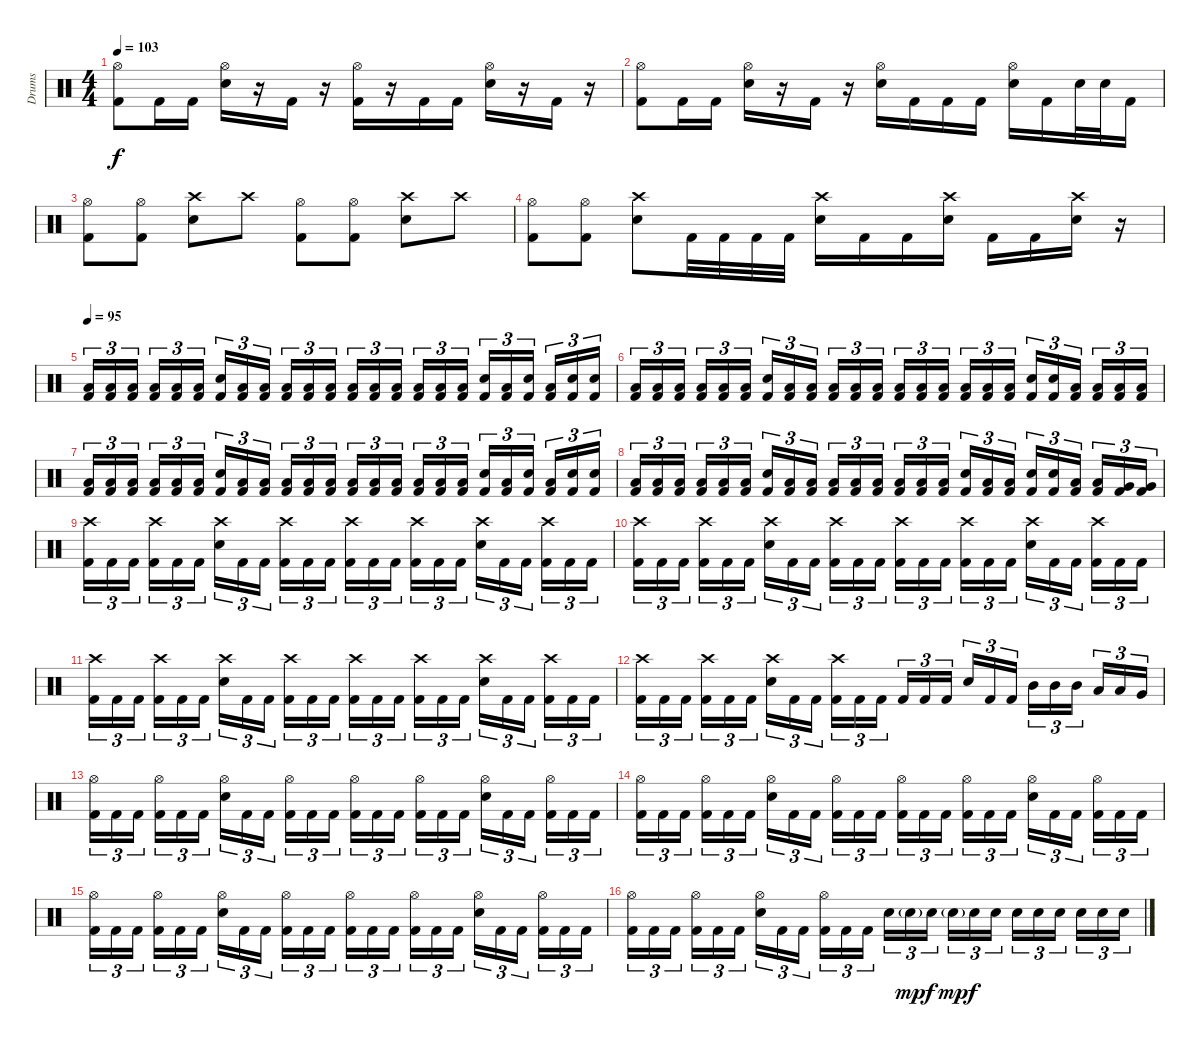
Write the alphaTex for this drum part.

\track ("Drums" "Drums") {instrument percussion}
\staff {score}
\articulation defaults
\ts (4 4)
\tempo 103
\clef neutral
\ks c
("Hi-Hat (open)" "Kick (hit) 2").8{dy f} "Kick (hit) 2".16 "Kick (hit) 2".16 ("Hi-Hat (open)" "Electric Snare (hit)").16 r.16 "Kick (hit) 2".16 r.16 ("Hi-Hat (open)" "Kick (hit) 2").16 r.16 "Kick (hit) 2".16 "Kick (hit) 2".16 ("Hi-Hat (open)" "Electric Snare (hit)").16 r.16 "Kick (hit) 2".16 r.16 |
("Hi-Hat (open)" "Kick (hit) 2").8 "Kick (hit) 2".16 "Kick (hit) 2".16 ("Hi-Hat (open)" "Electric Snare (hit)").16 r.16 "Kick (hit) 2".16 r.16 ("Hi-Hat (open)" "Electric Snare (hit)").16 "Kick (hit) 2".16 "Kick (hit) 2".16 "Kick (hit) 2".16 ("Hi-Hat (open)" "Electric Snare (hit)").16 "Kick (hit) 2".16 "Electric Snare (hit)".32 "Electric Snare (hit)".32 "Kick (hit) 2".16 |
("Hi-Hat (open)" "Kick (hit) 2").8 ("Hi-Hat (open)" "Kick (hit) 2").8 ("Crash high (hit)" "Electric Snare (hit)").8 "Crash high (hit)".8 ("Hi-Hat (open)" "Kick (hit) 2").8 ("Hi-Hat (open)" "Kick (hit) 2").8 ("Crash high (hit)" "Electric Snare (hit)").8 "Crash high (hit)".8 |
("Hi-Hat (open)" "Kick (hit) 2").8 ("Hi-Hat (open)" "Kick (hit) 2").8 ("Crash high (hit)" "Electric Snare (hit)").8 "Kick (hit) 2".32 "Kick (hit) 2".32 "Kick (hit) 2".32 "Kick (hit) 2".32 ("Crash high (hit)" "Electric Snare (hit)").16 "Kick (hit) 2".16 "Kick (hit) 2".16 ("Crash high (hit)" "Electric Snare (hit)").16 "Kick (hit) 2".16 "Kick (hit) 2".16 ("Crash high (hit)" "Electric Snare (hit)").16 r.16 |
\tempo 95
("Low Tom (hit)" "Kick (hit) 2").16{tu (3 2)} ("Low Tom (hit)" "Kick (hit) 2").16{tu (3 2)} ("Low Tom (hit)" "Kick (hit) 2").16{tu (3 2) beam splitsecondary} ("Low Tom (hit)" "Kick (hit) 2").16{tu (3 2)} ("Low Tom (hit)" "Kick (hit) 2").16{tu (3 2)} ("Low Tom (hit)" "Kick (hit) 2").16{tu (3 2)} ("Electric Snare (hit)" "Kick (hit) 2").16{tu (3 2)} ("Low Tom (hit)" "Kick (hit) 2").16{tu (3 2)} ("Low Tom (hit)" "Kick (hit) 2").16{tu (3 2) beam splitsecondary} ("Low Tom (hit)" "Kick (hit) 2").16{tu (3 2)} ("Low Tom (hit)" "Kick (hit) 2").16{tu (3 2)} ("Low Tom (hit)" "Kick (hit) 2").16{tu (3 2)} ("Low Tom (hit)" "Kick (hit) 2").16{tu (3 2)} ("Low Tom (hit)" "Kick (hit) 2").16{tu (3 2)} ("Low Tom (hit)" "Kick (hit) 2").16{tu (3 2) beam splitsecondary} ("Low Tom (hit)" "Kick (hit) 2").16{tu (3 2)} ("Low Tom (hit)" "Kick (hit) 2").16{tu (3 2)} ("Low Tom (hit)" "Kick (hit) 2").16{tu (3 2)} ("Electric Snare (hit)" "Kick (hit) 2").16{tu (3 2)} ("Low Tom (hit)" "Kick (hit) 2").16{tu (3 2)} ("Electric Snare (hit)" "Kick (hit) 2").16{tu (3 2) beam splitsecondary} ("Low Tom (hit)" "Kick (hit) 2").16{tu (3 2)} ("Electric Snare (hit)" "Kick (hit) 2").16{tu (3 2)} ("Electric Snare (hit)" "Kick (hit) 2").16{tu (3 2)} |
("Low Tom (hit)" "Kick (hit) 2").16{tu (3 2)} ("Low Tom (hit)" "Kick (hit) 2").16{tu (3 2)} ("Low Tom (hit)" "Kick (hit) 2").16{tu (3 2) beam splitsecondary} ("Low Tom (hit)" "Kick (hit) 2").16{tu (3 2)} ("Low Tom (hit)" "Kick (hit) 2").16{tu (3 2)} ("Low Tom (hit)" "Kick (hit) 2").16{tu (3 2)} ("Electric Snare (hit)" "Kick (hit) 2").16{tu (3 2)} ("Low Tom (hit)" "Kick (hit) 2").16{tu (3 2)} ("Low Tom (hit)" "Kick (hit) 2").16{tu (3 2) beam splitsecondary} ("Low Tom (hit)" "Kick (hit) 2").16{tu (3 2)} ("Low Tom (hit)" "Kick (hit) 2").16{tu (3 2)} ("Low Tom (hit)" "Kick (hit) 2").16{tu (3 2)} ("Low Tom (hit)" "Kick (hit) 2").16{tu (3 2)} ("Low Tom (hit)" "Kick (hit) 2").16{tu (3 2)} ("Low Tom (hit)" "Kick (hit) 2").16{tu (3 2) beam splitsecondary} ("Low Tom (hit)" "Kick (hit) 2").16{tu (3 2)} ("Low Tom (hit)" "Kick (hit) 2").16{tu (3 2)} ("Low Tom (hit)" "Kick (hit) 2").16{tu (3 2)} ("Electric Snare (hit)" "Kick (hit) 2").16{tu (3 2)} ("Electric Snare (hit)" "Kick (hit) 2").16{tu (3 2)} ("Low Tom (hit)" "Kick (hit) 2").16{tu (3 2) beam splitsecondary} ("Low Tom (hit)" "Kick (hit) 2").16{tu (3 2)} ("Low Tom (hit)" "Kick (hit) 2").16{tu (3 2)} ("Low Tom (hit)" "Kick (hit) 2").16{tu (3 2)} |
("Low Tom (hit)" "Kick (hit) 2").16{tu (3 2)} ("Low Tom (hit)" "Kick (hit) 2").16{tu (3 2)} ("Low Tom (hit)" "Kick (hit) 2").16{tu (3 2) beam splitsecondary} ("Low Tom (hit)" "Kick (hit) 2").16{tu (3 2)} ("Low Tom (hit)" "Kick (hit) 2").16{tu (3 2)} ("Low Tom (hit)" "Kick (hit) 2").16{tu (3 2)} ("Electric Snare (hit)" "Kick (hit) 2").16{tu (3 2)} ("Low Tom (hit)" "Kick (hit) 2").16{tu (3 2)} ("Low Tom (hit)" "Kick (hit) 2").16{tu (3 2) beam splitsecondary} ("Low Tom (hit)" "Kick (hit) 2").16{tu (3 2)} ("Low Tom (hit)" "Kick (hit) 2").16{tu (3 2)} ("Low Tom (hit)" "Kick (hit) 2").16{tu (3 2)} ("Low Tom (hit)" "Kick (hit) 2").16{tu (3 2)} ("Low Tom (hit)" "Kick (hit) 2").16{tu (3 2)} ("Low Tom (hit)" "Kick (hit) 2").16{tu (3 2) beam splitsecondary} ("Low Tom (hit)" "Kick (hit) 2").16{tu (3 2)} ("Low Tom (hit)" "Kick (hit) 2").16{tu (3 2)} ("Low Tom (hit)" "Kick (hit) 2").16{tu (3 2)} ("Electric Snare (hit)" "Kick (hit) 2").16{tu (3 2)} ("Low Tom (hit)" "Kick (hit) 2").16{tu (3 2)} ("Electric Snare (hit)" "Kick (hit) 2").16{tu (3 2) beam splitsecondary} ("Low Tom (hit)" "Kick (hit) 2").16{tu (3 2)} ("Electric Snare (hit)" "Kick (hit) 2").16{tu (3 2)} ("Electric Snare (hit)" "Kick (hit) 2").16{tu (3 2)} |
("Low Tom (hit)" "Kick (hit) 2").16{tu (3 2)} ("Low Tom (hit)" "Kick (hit) 2").16{tu (3 2)} ("Low Tom (hit)" "Kick (hit) 2").16{tu (3 2) beam splitsecondary} ("Low Tom (hit)" "Kick (hit) 2").16{tu (3 2)} ("Low Tom (hit)" "Kick (hit) 2").16{tu (3 2)} ("Low Tom (hit)" "Kick (hit) 2").16{tu (3 2)} ("Electric Snare (hit)" "Kick (hit) 2").16{tu (3 2)} ("Low Tom (hit)" "Kick (hit) 2").16{tu (3 2)} ("Low Tom (hit)" "Kick (hit) 2").16{tu (3 2) beam splitsecondary} ("Low Tom (hit)" "Kick (hit) 2").16{tu (3 2)} ("Low Tom (hit)" "Kick (hit) 2").16{tu (3 2)} ("Low Tom (hit)" "Kick (hit) 2").16{tu (3 2)} ("Low Tom (hit)" "Kick (hit) 2").16{tu (3 2)} ("Low Tom (hit)" "Kick (hit) 2").16{tu (3 2)} ("Low Tom (hit)" "Kick (hit) 2").16{tu (3 2) beam splitsecondary} ("Electric Snare (hit)" "Kick (hit) 2").16{tu (3 2)} ("Low Tom (hit)" "Kick (hit) 2").16{tu (3 2)} ("Low Tom (hit)" "Kick (hit) 2").16{tu (3 2)} ("Electric Snare (hit)" "Kick (hit) 2").16{tu (3 2)} ("Electric Snare (hit)" "Kick (hit) 2").16{tu (3 2)} ("Low Tom (hit)" "Kick (hit) 2").16{tu (3 2) beam splitsecondary} ("Low Tom (hit)" "Kick (hit) 2").16{tu (3 2)} ("Very Low Tom (hit)" "Kick (hit) 2").16{tu (3 2)} ("Very Low Tom (hit)" "Kick (hit) 2").16{tu (3 2)} |
("Crash high (hit)" "Kick (hit) 2").16{tu (3 2)} "Kick (hit) 2".16{tu (3 2)} "Kick (hit) 2".16{tu (3 2) beam splitsecondary} ("Crash high (hit)" "Kick (hit) 2").16{tu (3 2)} "Kick (hit) 2".16{tu (3 2)} "Kick (hit) 2".16{tu (3 2)} ("Crash high (hit)" "Electric Snare (hit)").16{tu (3 2)} "Kick (hit) 2".16{tu (3 2)} "Kick (hit) 2".16{tu (3 2) beam splitsecondary} ("Crash high (hit)" "Kick (hit) 2").16{tu (3 2)} "Kick (hit) 2".16{tu (3 2)} "Kick (hit) 2".16{tu (3 2)} ("Crash high (hit)" "Kick (hit) 2").16{tu (3 2)} "Kick (hit) 2".16{tu (3 2)} "Kick (hit) 2".16{tu (3 2) beam splitsecondary} ("Crash high (hit)" "Kick (hit) 2").16{tu (3 2)} "Kick (hit) 2".16{tu (3 2)} "Kick (hit) 2".16{tu (3 2)} ("Crash high (hit)" "Electric Snare (hit)").16{tu (3 2)} "Kick (hit) 2".16{tu (3 2)} "Kick (hit) 2".16{tu (3 2) beam splitsecondary} ("Crash high (hit)" "Kick (hit) 2").16{tu (3 2)} "Kick (hit) 2".16{tu (3 2)} "Kick (hit) 2".16{tu (3 2)} |
("Crash high (hit)" "Kick (hit) 2").16{tu (3 2)} "Kick (hit) 2".16{tu (3 2)} "Kick (hit) 2".16{tu (3 2) beam splitsecondary} ("Crash high (hit)" "Kick (hit) 2").16{tu (3 2)} "Kick (hit) 2".16{tu (3 2)} "Kick (hit) 2".16{tu (3 2)} ("Crash high (hit)" "Electric Snare (hit)").16{tu (3 2)} "Kick (hit) 2".16{tu (3 2)} "Kick (hit) 2".16{tu (3 2) beam splitsecondary} ("Crash high (hit)" "Kick (hit) 2").16{tu (3 2)} "Kick (hit) 2".16{tu (3 2)} "Kick (hit) 2".16{tu (3 2)} ("Crash high (hit)" "Kick (hit) 2").16{tu (3 2)} "Kick (hit) 2".16{tu (3 2)} "Kick (hit) 2".16{tu (3 2) beam splitsecondary} ("Crash high (hit)" "Kick (hit) 2").16{tu (3 2)} "Kick (hit) 2".16{tu (3 2)} "Kick (hit) 2".16{tu (3 2)} ("Crash high (hit)" "Electric Snare (hit)").16{tu (3 2)} "Kick (hit) 2".16{tu (3 2)} "Kick (hit) 2".16{tu (3 2) beam splitsecondary} ("Crash high (hit)" "Kick (hit) 2").16{tu (3 2)} "Kick (hit) 2".16{tu (3 2)} "Kick (hit) 2".16{tu (3 2)} |
("Crash high (hit)" "Kick (hit) 2").16{tu (3 2)} "Kick (hit) 2".16{tu (3 2)} "Kick (hit) 2".16{tu (3 2) beam splitsecondary} ("Crash high (hit)" "Kick (hit) 2").16{tu (3 2)} "Kick (hit) 2".16{tu (3 2)} "Kick (hit) 2".16{tu (3 2)} ("Crash high (hit)" "Electric Snare (hit)").16{tu (3 2)} "Kick (hit) 2".16{tu (3 2)} "Kick (hit) 2".16{tu (3 2) beam splitsecondary} ("Crash high (hit)" "Kick (hit) 2").16{tu (3 2)} "Kick (hit) 2".16{tu (3 2)} "Kick (hit) 2".16{tu (3 2)} ("Crash high (hit)" "Kick (hit) 2").16{tu (3 2)} "Kick (hit) 2".16{tu (3 2)} "Kick (hit) 2".16{tu (3 2) beam splitsecondary} ("Crash high (hit)" "Kick (hit) 2").16{tu (3 2)} "Kick (hit) 2".16{tu (3 2)} "Kick (hit) 2".16{tu (3 2)} ("Crash high (hit)" "Electric Snare (hit)").16{tu (3 2)} "Kick (hit) 2".16{tu (3 2)} "Kick (hit) 2".16{tu (3 2) beam splitsecondary} ("Crash high (hit)" "Kick (hit) 2").16{tu (3 2)} "Kick (hit) 2".16{tu (3 2)} "Kick (hit) 2".16{tu (3 2)} |
("Crash high (hit)" "Kick (hit) 2").16{tu (3 2)} "Kick (hit) 2".16{tu (3 2)} "Kick (hit) 2".16{tu (3 2) beam splitsecondary} ("Crash high (hit)" "Kick (hit) 2").16{tu (3 2)} "Kick (hit) 2".16{tu (3 2)} "Kick (hit) 2".16{tu (3 2)} ("Crash high (hit)" "Electric Snare (hit)").16{tu (3 2)} "Kick (hit) 2".16{tu (3 2)} "Kick (hit) 2".16{tu (3 2) beam splitsecondary} ("Crash high (hit)" "Kick (hit) 2").16{tu (3 2)} "Kick (hit) 2".16{tu (3 2)} "Kick (hit) 2".16{tu (3 2)} "Kick (hit) 2".16{tu (3 2)} "Kick (hit) 2".16{tu (3 2)} "Kick (hit) 2".16{tu (3 2) beam splitsecondary} "Electric Snare (hit)".16{tu (3 2)} "Kick (hit) 2".16{tu (3 2)} "Kick (hit) 2".16{tu (3 2)} "Mid Tom (hit)".16{tu (3 2)} "Mid Tom (hit)".16{tu (3 2)} "Mid Tom (hit)".16{tu (3 2) beam splitsecondary} "Low Tom (hit)".16{tu (3 2)} "Low Tom (hit)".16{tu (3 2)} "Very Low Tom (hit)".16{tu (3 2)} |
("Hi-Hat (open)" "Kick (hit) 2").16{tu (3 2)} "Kick (hit) 2".16{tu (3 2)} "Kick (hit) 2".16{tu (3 2) beam splitsecondary} ("Hi-Hat (open)" "Kick (hit) 2").16{tu (3 2)} "Kick (hit) 2".16{tu (3 2)} "Kick (hit) 2".16{tu (3 2)} ("Hi-Hat (open)" "Electric Snare (hit)").16{tu (3 2)} "Kick (hit) 2".16{tu (3 2)} "Kick (hit) 2".16{tu (3 2) beam splitsecondary} ("Hi-Hat (open)" "Kick (hit) 2").16{tu (3 2)} "Kick (hit) 2".16{tu (3 2)} "Kick (hit) 2".16{tu (3 2)} ("Hi-Hat (open)" "Kick (hit) 2").16{tu (3 2)} "Kick (hit) 2".16{tu (3 2)} "Kick (hit) 2".16{tu (3 2) beam splitsecondary} ("Hi-Hat (open)" "Kick (hit) 2").16{tu (3 2)} "Kick (hit) 2".16{tu (3 2)} "Kick (hit) 2".16{tu (3 2)} ("Hi-Hat (open)" "Electric Snare (hit)").16{tu (3 2)} "Kick (hit) 2".16{tu (3 2)} "Kick (hit) 2".16{tu (3 2) beam splitsecondary} ("Hi-Hat (open)" "Kick (hit) 2").16{tu (3 2)} "Kick (hit) 2".16{tu (3 2)} "Kick (hit) 2".16{tu (3 2)} |
("Hi-Hat (open)" "Kick (hit) 2").16{tu (3 2)} "Kick (hit) 2".16{tu (3 2)} "Kick (hit) 2".16{tu (3 2) beam splitsecondary} ("Hi-Hat (open)" "Kick (hit) 2").16{tu (3 2)} "Kick (hit) 2".16{tu (3 2)} "Kick (hit) 2".16{tu (3 2)} ("Hi-Hat (open)" "Electric Snare (hit)").16{tu (3 2)} "Kick (hit) 2".16{tu (3 2)} "Kick (hit) 2".16{tu (3 2) beam splitsecondary} ("Hi-Hat (open)" "Kick (hit) 2").16{tu (3 2)} "Kick (hit) 2".16{tu (3 2)} "Kick (hit) 2".16{tu (3 2)} ("Hi-Hat (open)" "Kick (hit) 2").16{tu (3 2)} "Kick (hit) 2".16{tu (3 2)} "Kick (hit) 2".16{tu (3 2) beam splitsecondary} ("Hi-Hat (open)" "Kick (hit) 2").16{tu (3 2)} "Kick (hit) 2".16{tu (3 2)} "Kick (hit) 2".16{tu (3 2)} ("Hi-Hat (open)" "Electric Snare (hit)").16{tu (3 2)} "Kick (hit) 2".16{tu (3 2)} "Kick (hit) 2".16{tu (3 2) beam splitsecondary} ("Hi-Hat (open)" "Kick (hit) 2").16{tu (3 2)} "Kick (hit) 2".16{tu (3 2)} "Kick (hit) 2".16{tu (3 2)} |
("Hi-Hat (open)" "Kick (hit) 2").16{tu (3 2)} "Kick (hit) 2".16{tu (3 2)} "Kick (hit) 2".16{tu (3 2) beam splitsecondary} ("Hi-Hat (open)" "Kick (hit) 2").16{tu (3 2)} "Kick (hit) 2".16{tu (3 2)} "Kick (hit) 2".16{tu (3 2)} ("Hi-Hat (open)" "Electric Snare (hit)").16{tu (3 2)} "Kick (hit) 2".16{tu (3 2)} "Kick (hit) 2".16{tu (3 2) beam splitsecondary} ("Hi-Hat (open)" "Kick (hit) 2").16{tu (3 2)} "Kick (hit) 2".16{tu (3 2)} "Kick (hit) 2".16{tu (3 2)} ("Hi-Hat (open)" "Kick (hit) 2").16{tu (3 2)} "Kick (hit) 2".16{tu (3 2)} "Kick (hit) 2".16{tu (3 2) beam splitsecondary} ("Hi-Hat (open)" "Kick (hit) 2").16{tu (3 2)} "Kick (hit) 2".16{tu (3 2)} "Kick (hit) 2".16{tu (3 2)} ("Hi-Hat (open)" "Electric Snare (hit)").16{tu (3 2)} "Kick (hit) 2".16{tu (3 2)} "Kick (hit) 2".16{tu (3 2) beam splitsecondary} ("Hi-Hat (open)" "Kick (hit) 2").16{tu (3 2)} "Kick (hit) 2".16{tu (3 2)} "Kick (hit) 2".16{tu (3 2)} |
("Hi-Hat (open)" "Kick (hit) 2").16{tu (3 2)} "Kick (hit) 2".16{tu (3 2)} "Kick (hit) 2".16{tu (3 2) beam splitsecondary} ("Hi-Hat (open)" "Kick (hit) 2").16{tu (3 2)} "Kick (hit) 2".16{tu (3 2)} "Kick (hit) 2".16{tu (3 2)} ("Hi-Hat (open)" "Electric Snare (hit)").16{tu (3 2)} "Kick (hit) 2".16{tu (3 2)} "Kick (hit) 2".16{tu (3 2) beam splitsecondary} ("Hi-Hat (open)" "Kick (hit) 2").16{tu (3 2)} "Kick (hit) 2".16{tu (3 2)} "Kick (hit) 2".16{tu (3 2)} "Electric Snare (hit)".16{tu (3 2)} "Electric Snare (hit)"{g}.16{tu (3 2) dy mp} "Electric Snare (hit)".16{tu (3 2) dy f beam splitsecondary} "Electric Snare (hit)"{g}.16{tu (3 2) dy mp} "Electric Snare (hit)".16{tu (3 2) dy f} "Electric Snare (hit)".16{tu (3 2)} "Electric Snare (hit)".16{tu (3 2)} "Electric Snare (hit)".16{tu (3 2)} "Electric Snare (hit)".16{tu (3 2) beam splitsecondary} "Electric Snare (hit)".16{tu (3 2)} "Electric Snare (hit)".16{tu (3 2)} "Electric Snare (hit)".16{tu (3 2)}
